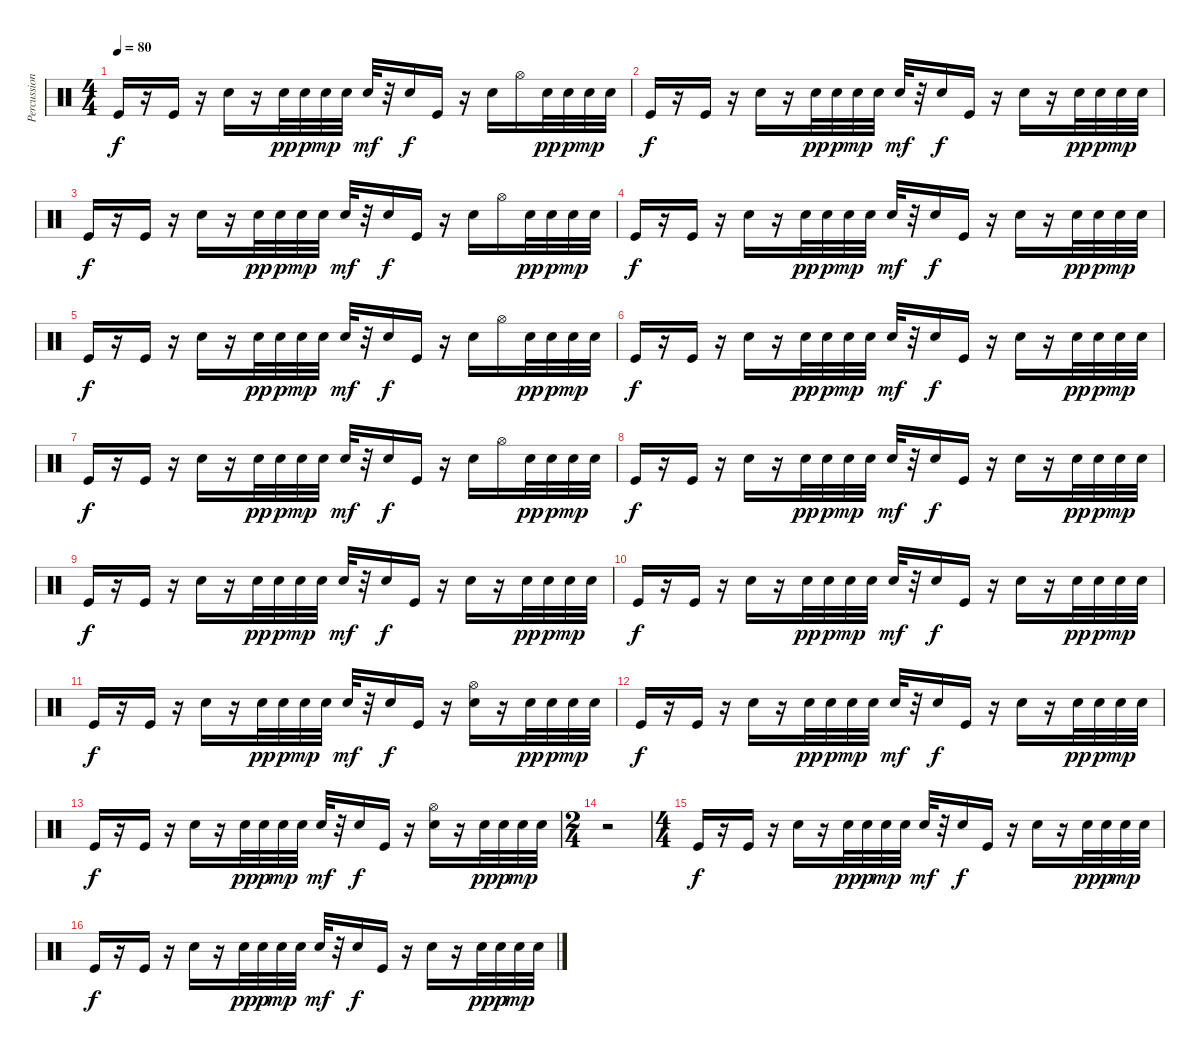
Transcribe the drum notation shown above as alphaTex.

\track ("Percussions" "Percussion") {instrument percussion}
\staff {score}
\articulation defaults
\ts (4 4)
\tempo 80
\clef neutral
\ks c "Kick (hit)".16{dy f}
r.16 "Kick (hit)".16 r.16 "Snare (hit) 2".16 r.16 "Snare (hit) 2".32{dy pp} "Snare (hit) 2".32{dy p} "Snare (hit) 2".32{dy mp} "Snare (hit) 2".32 "Snare (hit) 2".32{dy mf} r.32 "Electric Snare (hit)".16{dy f} "Kick (hit)".16 r.16 "Electric Snare (hit)".16 "Hi-Hat (open)".16 "Snare (hit) 2".32{dy pp} "Snare (hit) 2".32{dy p} "Snare (hit) 2".32{dy mp} "Snare (hit) 2".32 |
"Kick (hit)".16{dy f} r.16 "Kick (hit)".16 r.16 "Snare (hit) 2".16 r.16 "Snare (hit) 2".32{dy pp} "Snare (hit) 2".32{dy p} "Snare (hit) 2".32{dy mp} "Snare (hit) 2".32 "Snare (hit) 2".32{dy mf} r.32 "Electric Snare (hit)".16{dy f} "Kick (hit)".16 r.16 "Electric Snare (hit)".16 r.16 "Snare (hit) 2".32{dy pp} "Snare (hit) 2".32{dy p} "Snare (hit) 2".32{dy mp} "Snare (hit) 2".32 |
"Kick (hit)".16{dy f} r.16 "Kick (hit)".16 r.16 "Snare (hit) 2".16 r.16 "Snare (hit) 2".32{dy pp} "Snare (hit) 2".32{dy p} "Snare (hit) 2".32{dy mp} "Snare (hit) 2".32 "Snare (hit) 2".32{dy mf} r.32 "Electric Snare (hit)".16{dy f} "Kick (hit)".16 r.16 "Electric Snare (hit)".16 "Hi-Hat (open)".16 "Snare (hit) 2".32{dy pp} "Snare (hit) 2".32{dy p} "Snare (hit) 2".32{dy mp} "Snare (hit) 2".32 |
"Kick (hit)".16{dy f} r.16 "Kick (hit)".16 r.16 "Snare (hit) 2".16 r.16 "Snare (hit) 2".32{dy pp} "Snare (hit) 2".32{dy p} "Snare (hit) 2".32{dy mp} "Snare (hit) 2".32 "Snare (hit) 2".32{dy mf} r.32 "Electric Snare (hit)".16{dy f} "Kick (hit)".16 r.16 "Electric Snare (hit)".16 r.16 "Snare (hit) 2".32{dy pp} "Snare (hit) 2".32{dy p} "Snare (hit) 2".32{dy mp} "Snare (hit) 2".32 |
"Kick (hit)".16{dy f} r.16 "Kick (hit)".16 r.16 "Snare (hit) 2".16 r.16 "Snare (hit) 2".32{dy pp} "Snare (hit) 2".32{dy p} "Snare (hit) 2".32{dy mp} "Snare (hit) 2".32 "Snare (hit) 2".32{dy mf} r.32 "Electric Snare (hit)".16{dy f} "Kick (hit)".16 r.16 "Electric Snare (hit)".16 "Hi-Hat (open)".16 "Snare (hit) 2".32{dy pp} "Snare (hit) 2".32{dy p} "Snare (hit) 2".32{dy mp} "Snare (hit) 2".32 |
"Kick (hit)".16{dy f} r.16 "Kick (hit)".16 r.16 "Snare (hit) 2".16 r.16 "Snare (hit) 2".32{dy pp} "Snare (hit) 2".32{dy p} "Snare (hit) 2".32{dy mp} "Snare (hit) 2".32 "Snare (hit) 2".32{dy mf} r.32 "Electric Snare (hit)".16{dy f} "Kick (hit)".16 r.16 "Electric Snare (hit)".16 r.16 "Snare (hit) 2".32{dy pp} "Snare (hit) 2".32{dy p} "Snare (hit) 2".32{dy mp} "Snare (hit) 2".32 |
"Kick (hit)".16{dy f} r.16 "Kick (hit)".16 r.16 "Snare (hit) 2".16 r.16 "Snare (hit) 2".32{dy pp} "Snare (hit) 2".32{dy p} "Snare (hit) 2".32{dy mp} "Snare (hit) 2".32 "Snare (hit) 2".32{dy mf} r.32 "Electric Snare (hit)".16{dy f} "Kick (hit)".16 r.16 "Electric Snare (hit)".16 "Hi-Hat (open)".16 "Snare (hit) 2".32{dy pp} "Snare (hit) 2".32{dy p} "Snare (hit) 2".32{dy mp} "Snare (hit) 2".32 |
"Kick (hit)".16{dy f} r.16 "Kick (hit)".16 r.16 "Snare (hit) 2".16 r.16 "Snare (hit) 2".32{dy pp} "Snare (hit) 2".32{dy p} "Snare (hit) 2".32{dy mp} "Snare (hit) 2".32 "Snare (hit) 2".32{dy mf} r.32 "Electric Snare (hit)".16{dy f} "Kick (hit)".16 r.16 "Electric Snare (hit)".16 r.16 "Snare (hit) 2".32{dy pp} "Snare (hit) 2".32{dy p} "Snare (hit) 2".32{dy mp} "Snare (hit) 2".32 |
"Kick (hit)".16{dy f} r.16 "Kick (hit)".16 r.16 "Snare (hit) 2".16 r.16 "Snare (hit) 2".32{dy pp} "Snare (hit) 2".32{dy p} "Snare (hit) 2".32{dy mp} "Snare (hit) 2".32 "Snare (hit) 2".32{dy mf} r.32 "Electric Snare (hit)".16{dy f} "Kick (hit)".16 r.16 "Electric Snare (hit)".16 r.16 "Snare (hit) 2".32{dy pp} "Snare (hit) 2".32{dy p} "Snare (hit) 2".32{dy mp} "Snare (hit) 2".32 |
"Kick (hit)".16{dy f} r.16 "Kick (hit)".16 r.16 "Snare (hit) 2".16 r.16 "Snare (hit) 2".32{dy pp} "Snare (hit) 2".32{dy p} "Snare (hit) 2".32{dy mp} "Snare (hit) 2".32 "Snare (hit) 2".32{dy mf} r.32 "Electric Snare (hit)".16{dy f} "Kick (hit)".16 r.16 "Electric Snare (hit)".16 r.16 "Snare (hit) 2".32{dy pp} "Snare (hit) 2".32{dy p} "Snare (hit) 2".32{dy mp} "Snare (hit) 2".32 |
"Kick (hit)".16{dy f} r.16 "Kick (hit)".16 r.16 "Snare (hit) 2".16 r.16 "Snare (hit) 2".32{dy pp} "Snare (hit) 2".32{dy p} "Snare (hit) 2".32{dy mp} "Snare (hit) 2".32 "Snare (hit) 2".32{dy mf} r.32 "Electric Snare (hit)".16{dy f} "Kick (hit)".16 r.16 ("Hi-Hat (open)" "Electric Snare (hit)").16 r.16 "Snare (hit) 2".32{dy pp} "Snare (hit) 2".32{dy p} "Snare (hit) 2".32{dy mp} "Snare (hit) 2".32 |
"Kick (hit)".16{dy f} r.16 "Kick (hit)".16 r.16 "Snare (hit) 2".16 r.16 "Snare (hit) 2".32{dy pp} "Snare (hit) 2".32{dy p} "Snare (hit) 2".32{dy mp} "Snare (hit) 2".32 "Snare (hit) 2".32{dy mf} r.32 "Electric Snare (hit)".16{dy f} "Kick (hit)".16 r.16 "Electric Snare (hit)".16 r.16 "Snare (hit) 2".32{dy pp} "Snare (hit) 2".32{dy p} "Snare (hit) 2".32{dy mp} "Snare (hit) 2".32 |
"Kick (hit)".16{dy f} r.16 "Kick (hit)".16 r.16 "Snare (hit) 2".16 r.16 "Snare (hit) 2".32{dy pp} "Snare (hit) 2".32{dy p} "Snare (hit) 2".32{dy mp} "Snare (hit) 2".32 "Snare (hit) 2".32{dy mf} r.32 "Electric Snare (hit)".16{dy f} "Kick (hit)".16 r.16 ("Hi-Hat (open)" "Electric Snare (hit)").16 r.16 "Snare (hit) 2".32{dy pp} "Snare (hit) 2".32{dy p} "Snare (hit) 2".32{dy mp} "Snare (hit) 2".32 |
\ts (2 4)
r.2 |
\ts (4 4)
"Kick (hit)".16{dy f} r.16 "Kick (hit)".16 r.16 "Snare (hit) 2".16 r.16 "Snare (hit) 2".32{dy pp} "Snare (hit) 2".32{dy p} "Snare (hit) 2".32{dy mp} "Snare (hit) 2".32 "Snare (hit) 2".32{dy mf} r.32 "Electric Snare (hit)".16{dy f} "Kick (hit)".16 r.16 "Electric Snare (hit)".16 r.16 "Snare (hit) 2".32{dy pp} "Snare (hit) 2".32{dy p} "Snare (hit) 2".32{dy mp} "Snare (hit) 2".32 |
"Kick (hit)".16{dy f} r.16 "Kick (hit)".16 r.16 "Snare (hit) 2".16 r.16 "Snare (hit) 2".32{dy pp} "Snare (hit) 2".32{dy p} "Snare (hit) 2".32{dy mp} "Snare (hit) 2".32 "Snare (hit) 2".32{dy mf} r.32 "Electric Snare (hit)".16{dy f} "Kick (hit)".16 r.16 "Electric Snare (hit)".16 r.16 "Snare (hit) 2".32{dy pp} "Snare (hit) 2".32{dy p} "Snare (hit) 2".32{dy mp} "Snare (hit) 2".32
